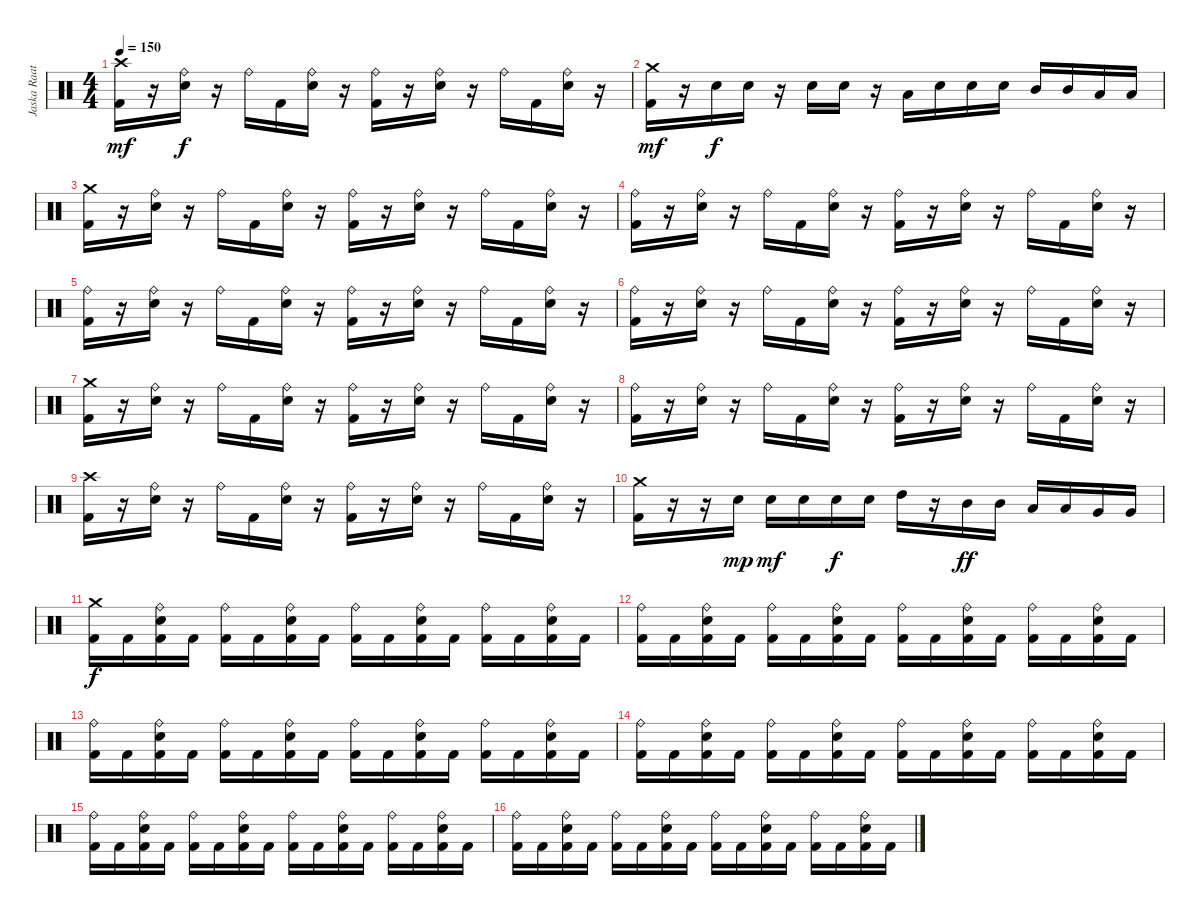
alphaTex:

\track ("Jaska Raatikainen" "Jaska Raat") {instrument percussion}
\staff {score}
\articulation defaults
\ts (4 4)
\tempo 150
\clef neutral
\ks c
("Crash high (hit)" "Kick (hit) 2").16{dy mf} r.16 ("Ride (bell)" "Electric Snare (hit)").16{dy f} r.16 "Ride (bell)".16 "Kick (hit) 2".16 ("Ride (bell)" "Electric Snare (hit)").16 r.16 ("Ride (bell)" "Kick (hit) 2").16 r.16 ("Ride (bell)" "Electric Snare (hit)").16 r.16 "Ride (bell)".16 "Kick (hit) 2".16 ("Ride (bell)" "Electric Snare (hit)").16 r.16 |
("Crash medium (hit)" "Kick (hit) 2").16{dy mf} r.16 "Electric Snare (hit)".16{dy f} "Electric Snare (hit)".16 r.16 "Electric Snare (hit)".16 "Electric Snare (hit)".16 r.16 "Low Tom (hit)".16 "Electric Snare (hit)".16 "Electric Snare (hit)".16 "Electric Snare (hit)".16 "Mid Tom (hit)".16 "Mid Tom (hit)".16 "Low Tom (hit)".16 "Low Tom (hit)".16 |
("Crash medium (hit)" "Kick (hit) 2").16 r.16 ("Ride (bell)" "Electric Snare (hit)").16 r.16 "Ride (bell)".16 "Kick (hit) 2".16 ("Ride (bell)" "Electric Snare (hit)").16 r.16 ("Ride (bell)" "Kick (hit) 2").16 r.16 ("Ride (bell)" "Electric Snare (hit)").16 r.16 "Ride (bell)".16 "Kick (hit) 2".16 ("Ride (bell)" "Electric Snare (hit)").16 r.16 |
("Ride (bell)" "Kick (hit) 2").16 r.16 ("Ride (bell)" "Electric Snare (hit)").16 r.16 "Ride (bell)".16 "Kick (hit) 2".16 ("Ride (bell)" "Electric Snare (hit)").16 r.16 ("Ride (bell)" "Kick (hit) 2").16 r.16 ("Ride (bell)" "Electric Snare (hit)").16 r.16 "Ride (bell)".16 "Kick (hit) 2".16 ("Ride (bell)" "Electric Snare (hit)").16 r.16 |
("Ride (bell)" "Kick (hit) 2").16 r.16 ("Ride (bell)" "Electric Snare (hit)").16 r.16 "Ride (bell)".16 "Kick (hit) 2".16 ("Ride (bell)" "Electric Snare (hit)").16 r.16 ("Ride (bell)" "Kick (hit) 2").16 r.16 ("Ride (bell)" "Electric Snare (hit)").16 r.16 "Ride (bell)".16 "Kick (hit) 2".16 ("Ride (bell)" "Electric Snare (hit)").16 r.16 |
("Ride (bell)" "Kick (hit) 2").16 r.16 ("Ride (bell)" "Electric Snare (hit)").16 r.16 "Ride (bell)".16 "Kick (hit) 2".16 ("Ride (bell)" "Electric Snare (hit)").16 r.16 ("Ride (bell)" "Kick (hit) 2").16 r.16 ("Ride (bell)" "Electric Snare (hit)").16 r.16 "Ride (bell)".16 "Kick (hit) 2".16 ("Ride (bell)" "Electric Snare (hit)").16 r.16 |
("Crash medium (hit)" "Kick (hit) 2").16 r.16 ("Ride (bell)" "Electric Snare (hit)").16 r.16 "Ride (bell)".16 "Kick (hit) 2".16 ("Ride (bell)" "Electric Snare (hit)").16 r.16 ("Ride (bell)" "Kick (hit) 2").16 r.16 ("Ride (bell)" "Electric Snare (hit)").16 r.16 "Ride (bell)".16 "Kick (hit) 2".16 ("Ride (bell)" "Electric Snare (hit)").16 r.16 |
("Ride (bell)" "Kick (hit) 2").16 r.16 ("Ride (bell)" "Electric Snare (hit)").16 r.16 "Ride (bell)".16 "Kick (hit) 2".16 ("Ride (bell)" "Electric Snare (hit)").16 r.16 ("Ride (bell)" "Kick (hit) 2").16 r.16 ("Ride (bell)" "Electric Snare (hit)").16 r.16 "Ride (bell)".16 "Kick (hit) 2".16 ("Ride (bell)" "Electric Snare (hit)").16 r.16 |
("Crash high (hit)" "Kick (hit) 2").16 r.16 ("Ride (bell)" "Electric Snare (hit)").16 r.16 "Ride (bell)".16 "Kick (hit) 2".16 ("Ride (bell)" "Electric Snare (hit)").16 r.16 ("Ride (bell)" "Kick (hit) 2").16 r.16 ("Ride (bell)" "Electric Snare (hit)").16 r.16 "Ride (bell)".16 "Kick (hit) 2".16 ("Ride (bell)" "Electric Snare (hit)").16 r.16 |
("Crash medium (hit)" "Kick (hit) 2").16 r.16 r.16 "Electric Snare (hit)".16{dy mp} "Electric Snare (hit)".16{dy mf} "Electric Snare (hit)".16 "Electric Snare (hit)".16{dy f} "Electric Snare (hit)".16 "High Tom (hit)".16 r.16 "Mid Tom (hit)".16{dy ff} "Mid Tom (hit)".16 "Low Tom (hit)".16 "Low Tom (hit)".16 "Very Low Tom (hit)".16 "Very Low Tom (hit)".16 |
("Crash medium (hit)" "Kick (hit) 2").16{dy f} "Kick (hit) 2".16 ("Ride (bell)" "Electric Snare (hit)" "Kick (hit) 2").16 "Kick (hit) 2".16 ("Ride (bell)" "Kick (hit) 2").16 "Kick (hit) 2".16 ("Ride (bell)" "Electric Snare (hit)" "Kick (hit) 2").16 "Kick (hit) 2".16 ("Ride (bell)" "Kick (hit) 2").16 "Kick (hit) 2".16 ("Ride (bell)" "Electric Snare (hit)" "Kick (hit) 2").16 "Kick (hit) 2".16 ("Ride (bell)" "Kick (hit) 2").16 "Kick (hit) 2".16 ("Ride (bell)" "Electric Snare (hit)" "Kick (hit) 2").16 "Kick (hit) 2".16 |
("Ride (bell)" "Kick (hit) 2").16 "Kick (hit) 2".16 ("Ride (bell)" "Electric Snare (hit)" "Kick (hit) 2").16 "Kick (hit) 2".16 ("Ride (bell)" "Kick (hit) 2").16 "Kick (hit) 2".16 ("Ride (bell)" "Electric Snare (hit)" "Kick (hit) 2").16 "Kick (hit) 2".16 ("Ride (bell)" "Kick (hit) 2").16 "Kick (hit) 2".16 ("Ride (bell)" "Electric Snare (hit)" "Kick (hit) 2").16 "Kick (hit) 2".16 ("Ride (bell)" "Kick (hit) 2").16 "Kick (hit) 2".16 ("Ride (bell)" "Electric Snare (hit)" "Kick (hit) 2").16 "Kick (hit) 2".16 |
("Ride (bell)" "Kick (hit) 2").16 "Kick (hit) 2".16 ("Ride (bell)" "Electric Snare (hit)" "Kick (hit) 2").16 "Kick (hit) 2".16 ("Ride (bell)" "Kick (hit) 2").16 "Kick (hit) 2".16 ("Ride (bell)" "Electric Snare (hit)" "Kick (hit) 2").16 "Kick (hit) 2".16 ("Ride (bell)" "Kick (hit) 2").16 "Kick (hit) 2".16 ("Ride (bell)" "Electric Snare (hit)" "Kick (hit) 2").16 "Kick (hit) 2".16 ("Ride (bell)" "Kick (hit) 2").16 "Kick (hit) 2".16 ("Ride (bell)" "Electric Snare (hit)" "Kick (hit) 2").16 "Kick (hit) 2".16 |
("Ride (bell)" "Kick (hit) 2").16 "Kick (hit) 2".16 ("Ride (bell)" "Electric Snare (hit)" "Kick (hit) 2").16 "Kick (hit) 2".16 ("Ride (bell)" "Kick (hit) 2").16 "Kick (hit) 2".16 ("Ride (bell)" "Electric Snare (hit)" "Kick (hit) 2").16 "Kick (hit) 2".16 ("Ride (bell)" "Kick (hit) 2").16 "Kick (hit) 2".16 ("Ride (bell)" "Electric Snare (hit)" "Kick (hit) 2").16 "Kick (hit) 2".16 ("Ride (bell)" "Kick (hit) 2").16 "Kick (hit) 2".16 ("Ride (bell)" "Electric Snare (hit)" "Kick (hit) 2").16 "Kick (hit) 2".16 |
("Ride (bell)" "Kick (hit) 2").16 "Kick (hit) 2".16 ("Ride (bell)" "Electric Snare (hit)" "Kick (hit) 2").16 "Kick (hit) 2".16 ("Ride (bell)" "Kick (hit) 2").16 "Kick (hit) 2".16 ("Ride (bell)" "Electric Snare (hit)" "Kick (hit) 2").16 "Kick (hit) 2".16 ("Ride (bell)" "Kick (hit) 2").16 "Kick (hit) 2".16 ("Ride (bell)" "Electric Snare (hit)" "Kick (hit) 2").16 "Kick (hit) 2".16 ("Ride (bell)" "Kick (hit) 2").16 "Kick (hit) 2".16 ("Ride (bell)" "Electric Snare (hit)" "Kick (hit) 2").16 "Kick (hit) 2".16 |
("Ride (bell)" "Kick (hit) 2").16 "Kick (hit) 2".16 ("Ride (bell)" "Electric Snare (hit)" "Kick (hit) 2").16 "Kick (hit) 2".16 ("Ride (bell)" "Kick (hit) 2").16 "Kick (hit) 2".16 ("Ride (bell)" "Electric Snare (hit)" "Kick (hit) 2").16 "Kick (hit) 2".16 ("Ride (bell)" "Kick (hit) 2").16 "Kick (hit) 2".16 ("Ride (bell)" "Electric Snare (hit)" "Kick (hit) 2").16 "Kick (hit) 2".16 ("Ride (bell)" "Kick (hit) 2").16 "Kick (hit) 2".16 ("Ride (bell)" "Electric Snare (hit)" "Kick (hit) 2").16 "Kick (hit) 2".16
